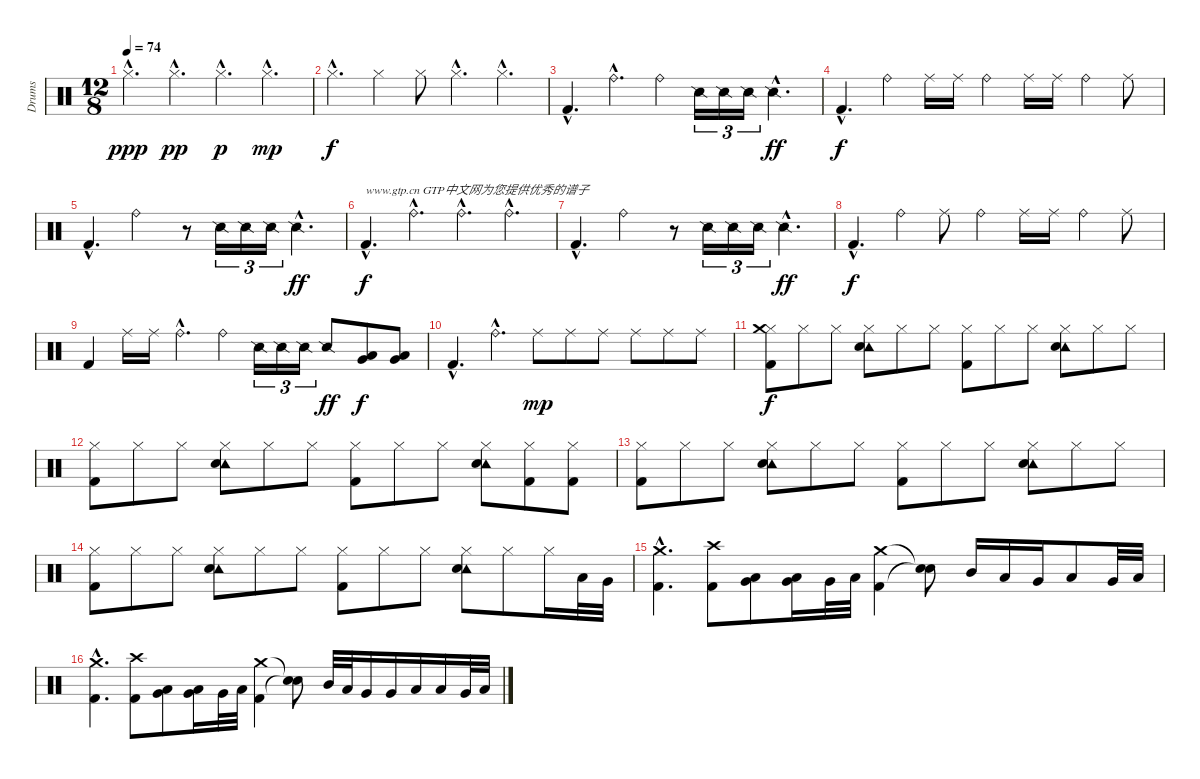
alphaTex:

\track ("Drums" "Drums") {instrument percussion}
\staff {score}
\articulation defaults
\ts (12 8)
\tempo 74
\clef neutral
\ks c "Hi-Hat (closed)"{hac}.4{d dy ppp} "Hi-Hat (closed)"{hac}.4{d dy pp} "Hi-Hat (closed)"{hac}.4{d dy p} "Hi-Hat (closed)"{hac}.4{d dy mp}
|
"Hi-Hat (closed)"{hac}.4{d dy f} "Hi-Hat (closed)".4 "Hi-Hat (closed)".8 "Hi-Hat (closed)"{hac}.4{d} "Hi-Hat (closed)"{hac}.4{d} |
"Kick (hit) 2"{hac}.4{d} "Ride (bell)"{hac}.4{d} "Ride (bell)".4 "Snare (side stick) 2".16{tu (3 2)} "Snare (side stick) 2".16{tu (3 2)} "Snare (side stick) 2".16{tu (3 2)} "Snare (side stick) 2"{hac}.4{d dy ff} |
"Kick (hit) 2"{hac}.4{d dy f} "Ride (bell)".4 "Ride (middle)".16 "Ride (middle)".16 "Ride (bell)".4 "Ride (middle)".16 "Ride (middle)".16 "Ride (bell)".4 "Ride (middle)".8 |
"Kick (hit) 2"{hac}.4{d} "Ride (bell)".2 r.8 "Snare (side stick) 2".16{tu (3 2)} "Snare (side stick) 2".16{tu (3 2)} "Snare (side stick) 2".16{tu (3 2)} "Snare (side stick) 2"{hac}.4{d dy ff} |
"Kick (hit) 2"{hac}.4{d txt "www.gtp.cn GTP中文网为您提供优秀的谱子" dy f} "Ride (bell)"{hac}.4{d} "Ride (bell)"{hac}.4{d} "Ride (bell)"{hac}.4{d} |
"Kick (hit) 2"{hac}.4{d} "Ride (bell)".2 r.8 "Snare (side stick) 2".16{tu (3 2)} "Snare (side stick) 2".16{tu (3 2)} "Snare (side stick) 2".16{tu (3 2)} "Snare (side stick) 2"{hac}.4{d dy ff} |
"Kick (hit) 2"{hac}.4{d dy f} "Ride (bell)".4 "Ride (middle)".8 "Ride (bell)".4 "Ride (middle)".16 "Ride (middle)".16 "Ride (bell)".4 "Ride (middle)".8 |
"Kick (hit) 2".4 "Ride (middle)".16 "Ride (middle)".16 "Ride (bell)"{hac}.4{d} "Ride (bell)".4 "Snare (side stick) 2".16{tu (3 2)} "Snare (side stick) 2".16{tu (3 2)} "Snare (side stick) 2".16{tu (3 2)} "Snare (side stick) 2".8{dy ff} ("Very Low Tom (hit)" "Low Floor Tom (hit)").8{dy f} ("Low Tom (hit)" "Very Low Tom (hit)").8 |
"Kick (hit) 2"{hac}.4{d} "Ride (bell)"{hac}.4{d} "Ride (middle)".8{dy mp} "Ride (middle)".8 "Ride (middle)".8 "Ride (middle)".8 "Ride (middle)".8 "Ride (middle)".8 |
("Hi-Hat (closed)" "Crash medium (hit)" "Kick (hit) 2").8{dy f} "Hi-Hat (closed)".8 "Hi-Hat (closed)".8 ("Hi-Hat (closed)" "Tambourine (hit)" "Metronome (bell)").8 "Hi-Hat (closed)".8 "Hi-Hat (closed)".8 ("Hi-Hat (closed)" "Kick (hit) 2").8 "Hi-Hat (closed)".8 "Hi-Hat (closed)".8 ("Hi-Hat (closed)" "Tambourine (hit)" "Metronome (bell)").8 "Hi-Hat (closed)".8 "Hi-Hat (closed)".8 |
("Hi-Hat (closed)" "Kick (hit) 2").8 "Hi-Hat (closed)".8 "Hi-Hat (closed)".8 ("Hi-Hat (closed)" "Tambourine (hit)" "Metronome (bell)").8 "Hi-Hat (closed)".8 "Hi-Hat (closed)".8 ("Hi-Hat (closed)" "Kick (hit) 2").8 "Hi-Hat (closed)".8 "Hi-Hat (closed)".8 ("Hi-Hat (closed)" "Tambourine (hit)" "Metronome (bell)").8 ("Hi-Hat (closed)" "Kick (hit) 2").8 ("Hi-Hat (closed)" "Kick (hit) 2").8 |
("Hi-Hat (closed)" "Kick (hit) 2").8 "Hi-Hat (closed)".8 "Hi-Hat (closed)".8 ("Hi-Hat (closed)" "Tambourine (hit)" "Metronome (bell)").8 "Hi-Hat (closed)".8 "Hi-Hat (closed)".8 ("Hi-Hat (closed)" "Kick (hit) 2").8 "Hi-Hat (closed)".8 "Hi-Hat (closed)".8 ("Hi-Hat (closed)" "Tambourine (hit)" "Metronome (bell)").8 "Hi-Hat (closed)".8 "Hi-Hat (closed)".8 |
("Hi-Hat (closed)" "Kick (hit) 2").8 "Hi-Hat (closed)".8 "Hi-Hat (closed)".8 ("Hi-Hat (closed)" "Tambourine (hit)" "Metronome (bell)").8 "Hi-Hat (closed)".8 "Hi-Hat (closed)".8 ("Hi-Hat (closed)" "Kick (hit) 2").8 "Hi-Hat (closed)".8 "Hi-Hat (closed)".8 ("Hi-Hat (closed)" "Tambourine (hit)" "Metronome (bell)").8 "Hi-Hat (closed)".8 "Hi-Hat (closed)".16 "Low Tom (hit)".32 "Very Low Tom (hit)".32 |
("Crash medium (hit)"{hac} "Kick (hit) 2"{hac}).4{d} ("Crash high (hit)" "Kick (hit) 2").8 ("Low Tom (hit)" "Very Low Tom (hit)").8 ("Very Low Tom (hit)" "Low Floor Tom (hit)").16 "Very Low Tom (hit)".32 "Low Floor Tom (hit)".32 ("Crash medium (hit)" "Kick (hit) 2").4 ("Snare (hit)"{t} "Snare (hit)"{t}).8 "Mid Tom (hit)".16 "Low Tom (hit)".16 "Very Low Tom (hit)".16 "Low Floor Tom (hit)".8 "Very Low Tom (hit)".32 "Low Floor Tom (hit)".32 |
("Crash medium (hit)"{hac} "Kick (hit) 2"{hac}).4{d} ("Crash high (hit)" "Kick (hit) 2").8 ("Low Tom (hit)" "Very Low Tom (hit)").8 ("Very Low Tom (hit)" "Low Floor Tom (hit)").16 "Very Low Tom (hit)".32 "Low Floor Tom (hit)".32 ("Crash medium (hit)" "Kick (hit) 2").4 ("Snare (hit)"{t} "Snare (hit)"{t}).8 "Mid Tom (hit)".32 "Low Tom (hit)".32 "Very Low Tom (hit)".16 "Very Low Tom (hit)".16 "Low Floor Tom (hit)".16 "Low Floor Tom (hit)".16 "Very Low Tom (hit)".32 "Low Floor Tom (hit)".32
